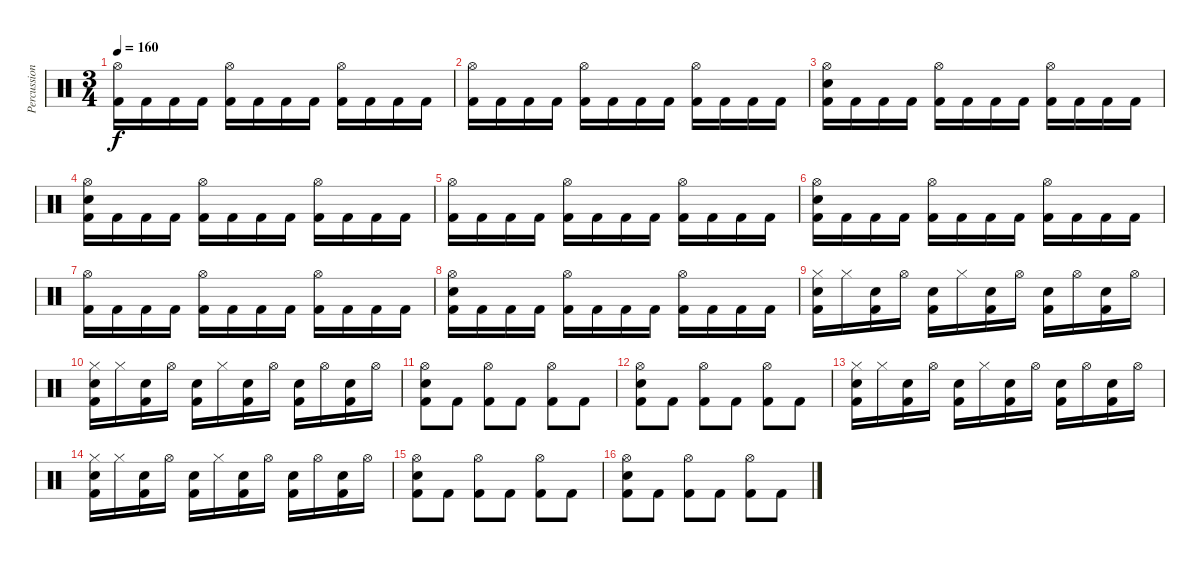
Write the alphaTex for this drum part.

\track ("Percussion" "Percussion") {instrument percussion}
\staff {score}
\articulation defaults
\ts (3 4)
\tempo 160
\clef neutral
\ks c
("Hi-Hat (open)" "Kick (hit) 2").16{dy f} "Kick (hit) 2".16 "Kick (hit) 2".16 "Kick (hit) 2".16 ("Hi-Hat (open)" "Kick (hit) 2").16 "Kick (hit) 2".16 "Kick (hit) 2".16 "Kick (hit) 2".16 ("Hi-Hat (open)" "Kick (hit) 2").16 "Kick (hit) 2".16 "Kick (hit) 2".16 "Kick (hit) 2".16 |
("Hi-Hat (open)" "Kick (hit) 2").16 "Kick (hit) 2".16 "Kick (hit) 2".16 "Kick (hit) 2".16 ("Hi-Hat (open)" "Kick (hit) 2").16 "Kick (hit) 2".16 "Kick (hit) 2".16 "Kick (hit) 2".16 ("Hi-Hat (open)" "Kick (hit) 2").16 "Kick (hit) 2".16 "Kick (hit) 2".16 "Kick (hit) 2".16 |
("Hi-Hat (open)" "Electric Snare (hit)" "Kick (hit) 2").16 "Kick (hit) 2".16 "Kick (hit) 2".16 "Kick (hit) 2".16 ("Hi-Hat (open)" "Kick (hit) 2").16 "Kick (hit) 2".16 "Kick (hit) 2".16 "Kick (hit) 2".16 ("Hi-Hat (open)" "Kick (hit) 2").16 "Kick (hit) 2".16 "Kick (hit) 2".16 "Kick (hit) 2".16 |
("Hi-Hat (open)" "Electric Snare (hit)" "Kick (hit) 2").16 "Kick (hit) 2".16 "Kick (hit) 2".16 "Kick (hit) 2".16 ("Hi-Hat (open)" "Kick (hit) 2").16 "Kick (hit) 2".16 "Kick (hit) 2".16 "Kick (hit) 2".16 ("Hi-Hat (open)" "Kick (hit) 2").16 "Kick (hit) 2".16 "Kick (hit) 2".16 "Kick (hit) 2".16 |
("Hi-Hat (open)" "Kick (hit) 2").16 "Kick (hit) 2".16 "Kick (hit) 2".16 "Kick (hit) 2".16 ("Hi-Hat (open)" "Kick (hit) 2").16 "Kick (hit) 2".16 "Kick (hit) 2".16 "Kick (hit) 2".16 ("Hi-Hat (open)" "Kick (hit) 2").16 "Kick (hit) 2".16 "Kick (hit) 2".16 "Kick (hit) 2".16 |
("Hi-Hat (open)" "Electric Snare (hit)" "Kick (hit) 2").16 "Kick (hit) 2".16 "Kick (hit) 2".16 "Kick (hit) 2".16 ("Hi-Hat (open)" "Kick (hit) 2").16 "Kick (hit) 2".16 "Kick (hit) 2".16 "Kick (hit) 2".16 ("Hi-Hat (open)" "Kick (hit) 2").16 "Kick (hit) 2".16 "Kick (hit) 2".16 "Kick (hit) 2".16 |
("Hi-Hat (open)" "Kick (hit) 2").16 "Kick (hit) 2".16 "Kick (hit) 2".16 "Kick (hit) 2".16 ("Hi-Hat (open)" "Kick (hit) 2").16 "Kick (hit) 2".16 "Kick (hit) 2".16 "Kick (hit) 2".16 ("Hi-Hat (open)" "Kick (hit) 2").16 "Kick (hit) 2".16 "Kick (hit) 2".16 "Kick (hit) 2".16 |
("Hi-Hat (open)" "Electric Snare (hit)" "Kick (hit) 2").16 "Kick (hit) 2".16 "Kick (hit) 2".16 "Kick (hit) 2".16 ("Hi-Hat (open)" "Kick (hit) 2").16 "Kick (hit) 2".16 "Kick (hit) 2".16 "Kick (hit) 2".16 ("Hi-Hat (open)" "Kick (hit) 2").16 "Kick (hit) 2".16 "Kick (hit) 2".16 "Kick (hit) 2".16 |
("Hi-Hat (closed)" "Electric Snare (hit)" "Kick (hit) 2").16 "Hi-Hat (closed)".16 ("Electric Snare (hit)" "Kick (hit) 2").16 "Hi-Hat (open)".16 ("Electric Snare (hit)" "Kick (hit) 2").16 "Hi-Hat (closed)".16 ("Electric Snare (hit)" "Kick (hit) 2").16 "Hi-Hat (open)".16 ("Electric Snare (hit)" "Kick (hit) 2").16 "Hi-Hat (open)".16 ("Electric Snare (hit)" "Kick (hit) 2").16 "Hi-Hat (open)".16 |
("Hi-Hat (closed)" "Electric Snare (hit)" "Kick (hit) 2").16 "Hi-Hat (closed)".16 ("Electric Snare (hit)" "Kick (hit) 2").16 "Hi-Hat (open)".16 ("Electric Snare (hit)" "Kick (hit) 2").16 "Hi-Hat (closed)".16 ("Electric Snare (hit)" "Kick (hit) 2").16 "Hi-Hat (open)".16 ("Electric Snare (hit)" "Kick (hit) 2").16 "Hi-Hat (open)".16 ("Electric Snare (hit)" "Kick (hit) 2").16 "Hi-Hat (open)".16 |
("Hi-Hat (open)" "Electric Snare (hit)" "Kick (hit) 2").8 "Kick (hit) 2".8 ("Hi-Hat (open)" "Kick (hit) 2").8 "Kick (hit) 2".8 ("Hi-Hat (open)" "Kick (hit) 2").8 "Kick (hit) 2".8 |
("Hi-Hat (open)" "Electric Snare (hit)" "Kick (hit) 2").8 "Kick (hit) 2".8 ("Hi-Hat (open)" "Kick (hit) 2").8 "Kick (hit) 2".8 ("Hi-Hat (open)" "Kick (hit) 2").8 "Kick (hit) 2".8 |
("Hi-Hat (closed)" "Electric Snare (hit)" "Kick (hit) 2").16 "Hi-Hat (closed)".16 ("Electric Snare (hit)" "Kick (hit) 2").16 "Hi-Hat (open)".16 ("Electric Snare (hit)" "Kick (hit) 2").16 "Hi-Hat (closed)".16 ("Electric Snare (hit)" "Kick (hit) 2").16 "Hi-Hat (open)".16 ("Electric Snare (hit)" "Kick (hit) 2").16 "Hi-Hat (open)".16 ("Electric Snare (hit)" "Kick (hit) 2").16 "Hi-Hat (open)".16 |
("Hi-Hat (closed)" "Electric Snare (hit)" "Kick (hit) 2").16 "Hi-Hat (closed)".16 ("Electric Snare (hit)" "Kick (hit) 2").16 "Hi-Hat (open)".16 ("Electric Snare (hit)" "Kick (hit) 2").16 "Hi-Hat (closed)".16 ("Electric Snare (hit)" "Kick (hit) 2").16 "Hi-Hat (open)".16 ("Electric Snare (hit)" "Kick (hit) 2").16 "Hi-Hat (open)".16 ("Electric Snare (hit)" "Kick (hit) 2").16 "Hi-Hat (open)".16 |
("Hi-Hat (open)" "Electric Snare (hit)" "Kick (hit) 2").8 "Kick (hit) 2".8 ("Hi-Hat (open)" "Kick (hit) 2").8 "Kick (hit) 2".8 ("Hi-Hat (open)" "Kick (hit) 2").8 "Kick (hit) 2".8 |
("Hi-Hat (open)" "Electric Snare (hit)" "Kick (hit) 2").8 "Kick (hit) 2".8 ("Hi-Hat (open)" "Kick (hit) 2").8 "Kick (hit) 2".8 ("Hi-Hat (open)" "Kick (hit) 2").8 "Kick (hit) 2".8
